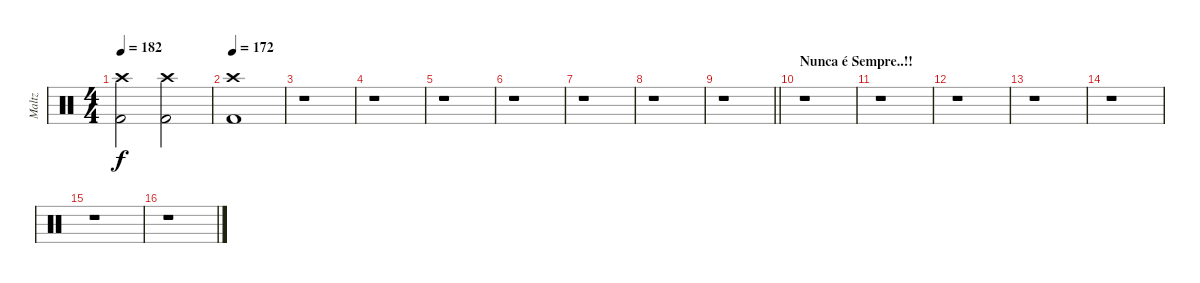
\track ("Maltz" "Maltz") {instrument percussion}
\staff {score}
\articulation defaults
\ts (4 4)
\tempo 182
\clef neutral
\ks c
("Crash high (hit)" "Kick (hit) 2").2{dy f} ("Crash high (hit)" "Kick (hit) 2").2 |
\tempo 172
("Crash high (hit)" "Kick (hit) 2").1 |
r.1 |
r.1 |
r.1 |
r.1 |
r.1 |
r.1 |
\barLineRight lightlight
r.1 |
\section ("" "Nunca é Sempre..!!")
r.1 |
r.1 |
r.1 |
r.1 |
r.1 |
r.1 |
r.1
